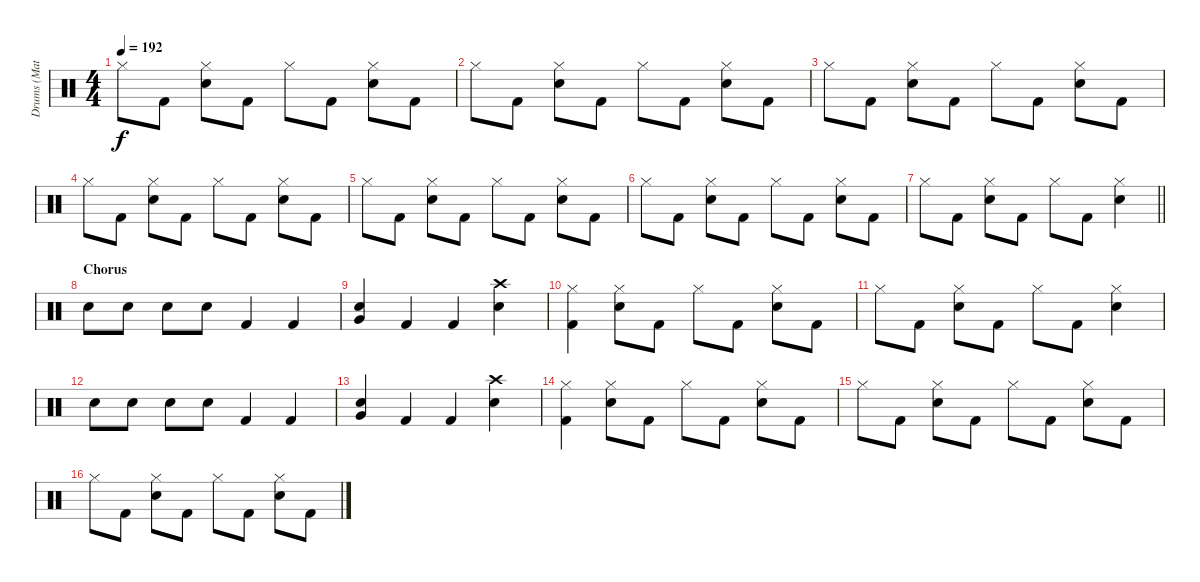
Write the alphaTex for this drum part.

\track ("Drums (Matt)" "Drums (Mat") {instrument percussion}
\staff {score}
\articulation defaults
\ts (4 4)
\tempo 192
\clef neutral
\ks c "Hi-Hat (closed)".8{dy f} "Kick (hit) 2".8
("Hi-Hat (closed)" "Snare (hit) 2").8 "Kick (hit) 2".8 "Hi-Hat (closed)".8 "Kick (hit) 2".8 ("Hi-Hat (closed)" "Snare (hit) 2").8 "Kick (hit) 2".8 |
"Hi-Hat (closed)".8 "Kick (hit) 2".8 ("Hi-Hat (closed)" "Snare (hit) 2").8 "Kick (hit) 2".8 "Hi-Hat (closed)".8 "Kick (hit) 2".8 ("Hi-Hat (closed)" "Snare (hit) 2").8 "Kick (hit) 2".8 |
"Hi-Hat (closed)".8 "Kick (hit) 2".8 ("Hi-Hat (closed)" "Snare (hit) 2").8 "Kick (hit) 2".8 "Hi-Hat (closed)".8 "Kick (hit) 2".8 ("Hi-Hat (closed)" "Snare (hit) 2").8 "Kick (hit) 2".8 |
"Hi-Hat (closed)".8 "Kick (hit) 2".8 ("Hi-Hat (closed)" "Snare (hit) 2").8 "Kick (hit) 2".8 "Hi-Hat (closed)".8 "Kick (hit) 2".8 ("Hi-Hat (closed)" "Snare (hit) 2").8 "Kick (hit) 2".8 |
"Hi-Hat (closed)".8 "Kick (hit) 2".8 ("Hi-Hat (closed)" "Snare (hit) 2").8 "Kick (hit) 2".8 "Hi-Hat (closed)".8 "Kick (hit) 2".8 ("Hi-Hat (closed)" "Snare (hit) 2").8 "Kick (hit) 2".8 |
"Hi-Hat (closed)".8 "Kick (hit) 2".8 ("Hi-Hat (closed)" "Snare (hit) 2").8 "Kick (hit) 2".8 "Hi-Hat (closed)".8 "Kick (hit) 2".8 ("Hi-Hat (closed)" "Snare (hit) 2").8 "Kick (hit) 2".8 |
\barLineRight lightlight "Hi-Hat (closed)".8 "Kick (hit) 2".8
("Hi-Hat (closed)" "Snare (hit) 2").8 "Kick (hit) 2".8 "Hi-Hat (closed)".8 "Kick (hit) 2".8 ("Hi-Hat (closed)" "Snare (hit) 2").4 |
\section ("" "Chorus")
"Snare (hit) 2".8 "Snare (hit) 2".8 "Snare (hit) 2".8 "Snare (hit) 2".8 "Kick (hit) 2".4 "Kick (hit) 2".4 |
("Very Low Tom (hit)" "Snare (hit) 2").4 "Kick (hit) 2".4 "Kick (hit) 2".4 ("Crash high (hit)" "Snare (hit) 2").4 |
("Hi-Hat (closed)" "Kick (hit) 2").4 ("Hi-Hat (closed)" "Snare (hit) 2").8 "Kick (hit) 2".8 "Hi-Hat (closed)".8 "Kick (hit) 2".8 ("Hi-Hat (closed)" "Snare (hit) 2").8 "Kick (hit) 2".8 |
"Hi-Hat (closed)".8 "Kick (hit) 2".8 ("Hi-Hat (closed)" "Snare (hit) 2").8 "Kick (hit) 2".8 "Hi-Hat (closed)".8 "Kick (hit) 2".8 ("Hi-Hat (closed)" "Snare (hit) 2").4 |
"Snare (hit) 2".8 "Snare (hit) 2".8 "Snare (hit) 2".8 "Snare (hit) 2".8 "Kick (hit) 2".4 "Kick (hit) 2".4 |
("Very Low Tom (hit)" "Snare (hit) 2").4 "Kick (hit) 2".4 "Kick (hit) 2".4 ("Crash high (hit)" "Snare (hit) 2").4 |
("Hi-Hat (closed)" "Kick (hit) 2").4 ("Hi-Hat (closed)" "Snare (hit) 2").8 "Kick (hit) 2".8 "Hi-Hat (closed)".8 "Kick (hit) 2".8 ("Hi-Hat (closed)" "Snare (hit) 2").8 "Kick (hit) 2".8 |
"Hi-Hat (closed)".8 "Kick (hit) 2".8 ("Hi-Hat (closed)" "Snare (hit) 2").8 "Kick (hit) 2".8 "Hi-Hat (closed)".8 "Kick (hit) 2".8 ("Hi-Hat (closed)" "Snare (hit) 2").8 "Kick (hit) 2".8 |
"Hi-Hat (closed)".8 "Kick (hit) 2".8 ("Hi-Hat (closed)" "Snare (hit) 2").8 "Kick (hit) 2".8 "Hi-Hat (closed)".8 "Kick (hit) 2".8 ("Hi-Hat (closed)" "Snare (hit) 2").8 "Kick (hit) 2".8
